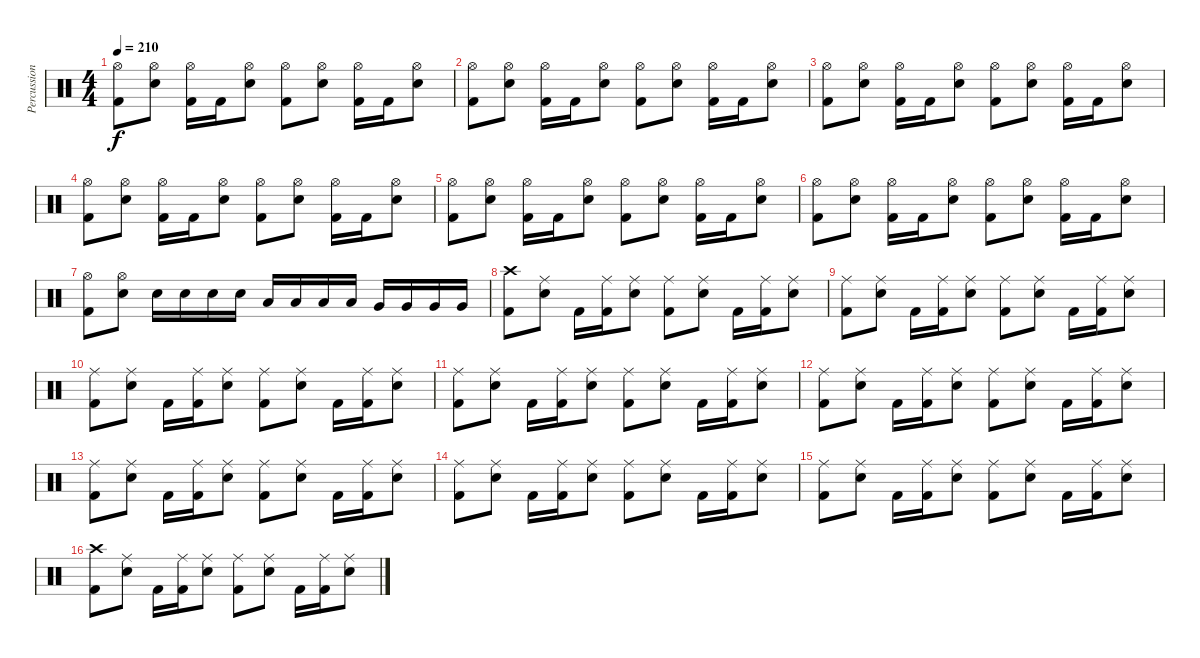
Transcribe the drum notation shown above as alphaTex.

\track ("Percussions" "Percussion") {instrument percussion}
\staff {score}
\articulation defaults
\ts (4 4)
\tempo 210
\clef neutral
\ks c
("Hi-Hat (open)" "Kick (hit) 2").8{dy f} ("Hi-Hat (open)" "Snare (hit) 2").8 ("Hi-Hat (open)" "Kick (hit) 2").16 "Kick (hit) 2".16 ("Hi-Hat (open)" "Snare (hit) 2").8 ("Hi-Hat (open)" "Kick (hit) 2").8 ("Hi-Hat (open)" "Snare (hit) 2").8 ("Hi-Hat (open)" "Kick (hit) 2").16 "Kick (hit) 2".16 ("Hi-Hat (open)" "Snare (hit) 2").8 |
("Hi-Hat (open)" "Kick (hit) 2").8 ("Hi-Hat (open)" "Snare (hit) 2").8 ("Hi-Hat (open)" "Kick (hit) 2").16 "Kick (hit) 2".16 ("Hi-Hat (open)" "Snare (hit) 2").8 ("Hi-Hat (open)" "Kick (hit) 2").8 ("Hi-Hat (open)" "Snare (hit) 2").8 ("Hi-Hat (open)" "Kick (hit) 2").16 "Kick (hit) 2".16 ("Hi-Hat (open)" "Snare (hit) 2").8 |
("Hi-Hat (open)" "Kick (hit) 2").8 ("Hi-Hat (open)" "Snare (hit) 2").8 ("Hi-Hat (open)" "Kick (hit) 2").16 "Kick (hit) 2".16 ("Hi-Hat (open)" "Snare (hit) 2").8 ("Hi-Hat (open)" "Kick (hit) 2").8 ("Hi-Hat (open)" "Snare (hit) 2").8 ("Hi-Hat (open)" "Kick (hit) 2").16 "Kick (hit) 2".16 ("Hi-Hat (open)" "Snare (hit) 2").8 |
("Hi-Hat (open)" "Kick (hit) 2").8 ("Hi-Hat (open)" "Snare (hit) 2").8 ("Hi-Hat (open)" "Kick (hit) 2").16 "Kick (hit) 2".16 ("Hi-Hat (open)" "Snare (hit) 2").8 ("Hi-Hat (open)" "Kick (hit) 2").8 ("Hi-Hat (open)" "Snare (hit) 2").8 ("Hi-Hat (open)" "Kick (hit) 2").16 "Kick (hit) 2".16 ("Hi-Hat (open)" "Snare (hit) 2").8 |
("Hi-Hat (open)" "Kick (hit) 2").8 ("Hi-Hat (open)" "Snare (hit) 2").8 ("Hi-Hat (open)" "Kick (hit) 2").16 "Kick (hit) 2".16 ("Hi-Hat (open)" "Snare (hit) 2").8 ("Hi-Hat (open)" "Kick (hit) 2").8 ("Hi-Hat (open)" "Snare (hit) 2").8 ("Hi-Hat (open)" "Kick (hit) 2").16 "Kick (hit) 2".16 ("Hi-Hat (open)" "Snare (hit) 2").8 |
("Hi-Hat (open)" "Kick (hit) 2").8 ("Hi-Hat (open)" "Snare (hit) 2").8 ("Hi-Hat (open)" "Kick (hit) 2").16 "Kick (hit) 2".16 ("Hi-Hat (open)" "Snare (hit) 2").8 ("Hi-Hat (open)" "Kick (hit) 2").8 ("Hi-Hat (open)" "Snare (hit) 2").8 ("Hi-Hat (open)" "Kick (hit) 2").16 "Kick (hit) 2".16 ("Hi-Hat (open)" "Snare (hit) 2").8 |
("Hi-Hat (open)" "Kick (hit) 2").8 ("Hi-Hat (open)" "Snare (hit) 2").8 "Snare (hit) 2".16 "Snare (hit) 2".16 "Snare (hit) 2".16 "Snare (hit) 2".16 "Low Tom (hit)".16 "Low Tom (hit)".16 "Low Tom (hit)".16 "Low Tom (hit)".16 "Very Low Tom (hit)".16 "Very Low Tom (hit)".16 "Very Low Tom (hit)".16 "Very Low Tom (hit)".16 |
("Crash high (hit)" "Kick (hit) 2").8 ("Ride (middle)" "Snare (hit) 2").8 "Kick (hit) 2".16 ("Ride (middle)" "Kick (hit) 2").16 ("Ride (middle)" "Snare (hit) 2").8 ("Ride (middle)" "Kick (hit) 2").8 ("Ride (middle)" "Snare (hit) 2").8 "Kick (hit) 2".16 ("Ride (middle)" "Kick (hit) 2").16 ("Ride (middle)" "Snare (hit) 2").8 |
("Ride (middle)" "Kick (hit) 2").8 ("Ride (middle)" "Snare (hit) 2").8 "Kick (hit) 2".16 ("Ride (middle)" "Kick (hit) 2").16 ("Ride (middle)" "Snare (hit) 2").8 ("Ride (middle)" "Kick (hit) 2").8 ("Ride (middle)" "Snare (hit) 2").8 "Kick (hit) 2".16 ("Ride (middle)" "Kick (hit) 2").16 ("Ride (middle)" "Snare (hit) 2").8 |
("Ride (middle)" "Kick (hit) 2").8 ("Ride (middle)" "Snare (hit) 2").8 "Kick (hit) 2".16 ("Ride (middle)" "Kick (hit) 2").16 ("Ride (middle)" "Snare (hit) 2").8 ("Ride (middle)" "Kick (hit) 2").8 ("Ride (middle)" "Snare (hit) 2").8 "Kick (hit) 2".16 ("Ride (middle)" "Kick (hit) 2").16 ("Ride (middle)" "Snare (hit) 2").8 |
("Ride (middle)" "Kick (hit) 2").8 ("Ride (middle)" "Snare (hit) 2").8 "Kick (hit) 2".16 ("Ride (middle)" "Kick (hit) 2").16 ("Ride (middle)" "Snare (hit) 2").8 ("Ride (middle)" "Kick (hit) 2").8 ("Ride (middle)" "Snare (hit) 2").8 "Kick (hit) 2".16 ("Ride (middle)" "Kick (hit) 2").16 ("Ride (middle)" "Snare (hit) 2").8 |
("Ride (middle)" "Kick (hit) 2").8 ("Ride (middle)" "Snare (hit) 2").8 "Kick (hit) 2".16 ("Ride (middle)" "Kick (hit) 2").16 ("Ride (middle)" "Snare (hit) 2").8 ("Ride (middle)" "Kick (hit) 2").8 ("Ride (middle)" "Snare (hit) 2").8 "Kick (hit) 2".16 ("Ride (middle)" "Kick (hit) 2").16 ("Ride (middle)" "Snare (hit) 2").8 |
("Ride (middle)" "Kick (hit) 2").8 ("Ride (middle)" "Snare (hit) 2").8 "Kick (hit) 2".16 ("Ride (middle)" "Kick (hit) 2").16 ("Ride (middle)" "Snare (hit) 2").8 ("Ride (middle)" "Kick (hit) 2").8 ("Ride (middle)" "Snare (hit) 2").8 "Kick (hit) 2".16 ("Ride (middle)" "Kick (hit) 2").16 ("Ride (middle)" "Snare (hit) 2").8 |
("Ride (middle)" "Kick (hit) 2").8 ("Ride (middle)" "Snare (hit) 2").8 "Kick (hit) 2".16 ("Ride (middle)" "Kick (hit) 2").16 ("Ride (middle)" "Snare (hit) 2").8 ("Ride (middle)" "Kick (hit) 2").8 ("Ride (middle)" "Snare (hit) 2").8 "Kick (hit) 2".16 ("Ride (middle)" "Kick (hit) 2").16 ("Ride (middle)" "Snare (hit) 2").8 |
("Ride (middle)" "Kick (hit) 2").8 ("Ride (middle)" "Snare (hit) 2").8 "Kick (hit) 2".16 ("Ride (middle)" "Kick (hit) 2").16 ("Ride (middle)" "Snare (hit) 2").8 ("Ride (middle)" "Kick (hit) 2").8 ("Ride (middle)" "Snare (hit) 2").8 "Kick (hit) 2".16 ("Ride (middle)" "Kick (hit) 2").16 ("Ride (middle)" "Snare (hit) 2").8 |
("Crash high (hit)" "Kick (hit) 2").8 ("Ride (middle)" "Snare (hit) 2").8 "Kick (hit) 2".16 ("Ride (middle)" "Kick (hit) 2").16 ("Ride (middle)" "Snare (hit) 2").8 ("Ride (middle)" "Kick (hit) 2").8 ("Ride (middle)" "Snare (hit) 2").8 "Kick (hit) 2".16 ("Ride (middle)" "Kick (hit) 2").16 ("Ride (middle)" "Snare (hit) 2").8
